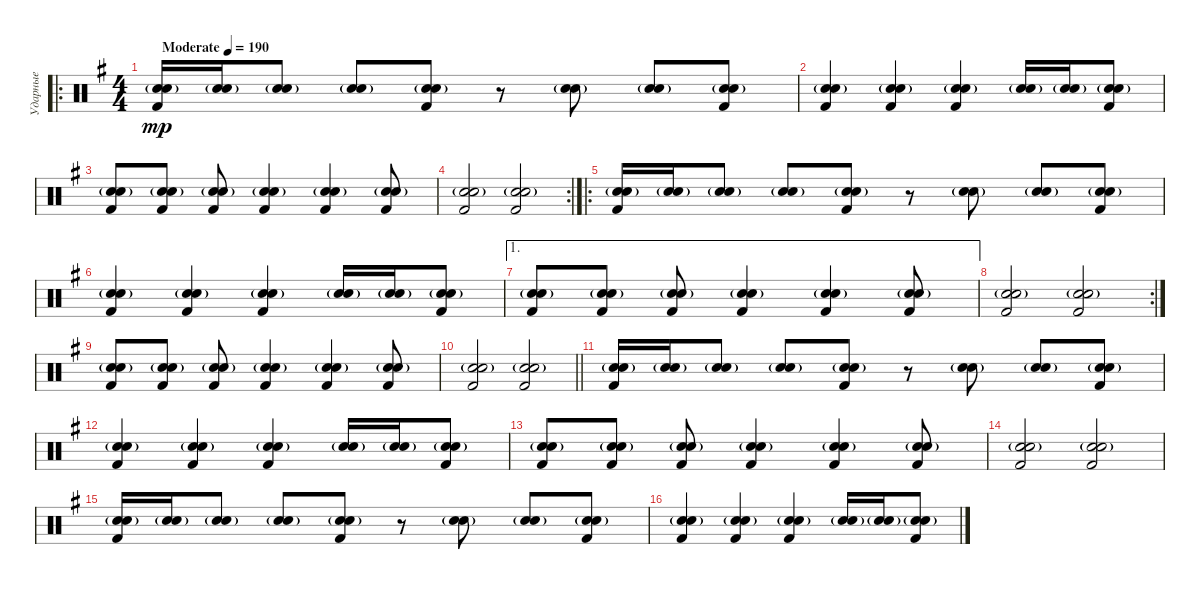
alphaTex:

\track ("Ударные" "Ударные") {instrument percussion}
\staff {score}
\articulation defaults
\ro
\ts (4 4)
\tempo (190 "Moderate")
\clef neutral
\ks g
("Kick (hit) 2" "Snare (hit) 2"{g} "Electric Snare (hit)").16{dy mp} ("Snare (hit) 2"{g} "Electric Snare (hit)"{g}).16 ("Snare (hit) 2"{g} "Electric Snare (hit)"{g}).8 ("Snare (hit) 2"{g} "Electric Snare (hit)").8 ("Kick (hit) 2" "Snare (hit) 2"{g} "Electric Snare (hit)").8 r.8 ("Snare (hit) 2"{g} "Electric Snare (hit)").8 ("Snare (hit) 2"{g} "Electric Snare (hit)"{g}).8 ("Kick (hit) 2" "Snare (hit) 2"{g} "Electric Snare (hit)").8 |
("Kick (hit) 2" "Snare (hit) 2"{g} "Electric Snare (hit)").4 ("Kick (hit) 2" "Snare (hit) 2"{g} "Electric Snare (hit)").4 ("Kick (hit) 2" "Snare (hit) 2"{g} "Electric Snare (hit)").4 ("Snare (hit) 2"{g} "Electric Snare (hit)"{g}).16 ("Snare (hit) 2"{g} "Electric Snare (hit)"{g}).16 ("Kick (hit) 2" "Snare (hit) 2"{g} "Electric Snare (hit)").8 |
("Kick (hit) 2" "Snare (hit) 2"{g} "Electric Snare (hit)").8 ("Kick (hit) 2" "Snare (hit) 2"{g} "Electric Snare (hit)").8 ("Kick (hit) 2" "Snare (hit) 2"{g} "Electric Snare (hit)").8 ("Kick (hit) 2" "Snare (hit) 2"{g} "Electric Snare (hit)").4 ("Kick (hit) 2" "Snare (hit) 2"{g} "Electric Snare (hit)").4 ("Kick (hit) 2" "Snare (hit) 2"{g} "Electric Snare (hit)").8 |
\rc 2
("Kick (hit) 2" "Snare (hit) 2"{g} "Electric Snare (hit)").2 ("Kick (hit) 2" "Snare (hit) 2"{g} "Electric Snare (hit)").2 |
\ro
("Kick (hit) 2" "Snare (hit) 2"{g} "Electric Snare (hit)").16 ("Snare (hit) 2"{g} "Electric Snare (hit)"{g}).16 ("Snare (hit) 2"{g} "Electric Snare (hit)"{g}).8 ("Snare (hit) 2"{g} "Electric Snare (hit)").8 ("Kick (hit) 2" "Snare (hit) 2"{g} "Electric Snare (hit)").8 r.8 ("Snare (hit) 2"{g} "Electric Snare (hit)").8 ("Snare (hit) 2"{g} "Electric Snare (hit)"{g}).8 ("Kick (hit) 2" "Snare (hit) 2"{g} "Electric Snare (hit)").8 |
("Kick (hit) 2" "Snare (hit) 2"{g} "Electric Snare (hit)").4 ("Kick (hit) 2" "Snare (hit) 2"{g} "Electric Snare (hit)").4 ("Kick (hit) 2" "Snare (hit) 2"{g} "Electric Snare (hit)").4 ("Snare (hit) 2"{g} "Electric Snare (hit)"{g}).16 ("Snare (hit) 2"{g} "Electric Snare (hit)"{g}).16 ("Kick (hit) 2" "Snare (hit) 2"{g} "Electric Snare (hit)").8 |
\ae 1
("Kick (hit) 2" "Snare (hit) 2"{g} "Electric Snare (hit)").8 ("Kick (hit) 2" "Snare (hit) 2"{g} "Electric Snare (hit)").8 ("Kick (hit) 2" "Snare (hit) 2"{g} "Electric Snare (hit)").8 ("Kick (hit) 2" "Snare (hit) 2"{g} "Electric Snare (hit)").4 ("Kick (hit) 2" "Snare (hit) 2"{g} "Electric Snare (hit)").4 ("Kick (hit) 2" "Snare (hit) 2"{g} "Electric Snare (hit)").8 |
\rc 2
("Kick (hit) 2" "Snare (hit) 2"{g} "Electric Snare (hit)").2 ("Kick (hit) 2" "Snare (hit) 2"{g} "Electric Snare (hit)").2 |
("Kick (hit) 2" "Snare (hit) 2"{g} "Electric Snare (hit)").8 ("Kick (hit) 2" "Snare (hit) 2"{g} "Electric Snare (hit)").8 ("Kick (hit) 2" "Snare (hit) 2"{g} "Electric Snare (hit)").8 ("Kick (hit) 2" "Snare (hit) 2"{g} "Electric Snare (hit)").4 ("Kick (hit) 2" "Snare (hit) 2"{g} "Electric Snare (hit)").4 ("Kick (hit) 2" "Snare (hit) 2"{g} "Electric Snare (hit)").8 |
\barLineRight lightlight
("Kick (hit) 2" "Snare (hit) 2"{g} "Electric Snare (hit)").2 ("Kick (hit) 2" "Snare (hit) 2"{g} "Electric Snare (hit)").2 |
("Kick (hit) 2" "Snare (hit) 2"{g} "Electric Snare (hit)").16 ("Snare (hit) 2"{g} "Electric Snare (hit)"{g}).16 ("Snare (hit) 2"{g} "Electric Snare (hit)"{g}).8 ("Snare (hit) 2"{g} "Electric Snare (hit)").8 ("Kick (hit) 2" "Snare (hit) 2"{g} "Electric Snare (hit)").8 r.8 ("Snare (hit) 2"{g} "Electric Snare (hit)").8 ("Snare (hit) 2"{g} "Electric Snare (hit)"{g}).8 ("Kick (hit) 2" "Snare (hit) 2"{g} "Electric Snare (hit)").8 |
("Kick (hit) 2" "Snare (hit) 2"{g} "Electric Snare (hit)").4 ("Kick (hit) 2" "Snare (hit) 2"{g} "Electric Snare (hit)").4 ("Kick (hit) 2" "Snare (hit) 2"{g} "Electric Snare (hit)").4 ("Snare (hit) 2"{g} "Electric Snare (hit)"{g}).16 ("Snare (hit) 2"{g} "Electric Snare (hit)"{g}).16 ("Kick (hit) 2" "Snare (hit) 2"{g} "Electric Snare (hit)").8 |
("Kick (hit) 2" "Snare (hit) 2"{g} "Electric Snare (hit)").8 ("Kick (hit) 2" "Snare (hit) 2"{g} "Electric Snare (hit)").8 ("Kick (hit) 2" "Snare (hit) 2"{g} "Electric Snare (hit)").8 ("Kick (hit) 2" "Snare (hit) 2"{g} "Electric Snare (hit)").4 ("Kick (hit) 2" "Snare (hit) 2"{g} "Electric Snare (hit)").4 ("Kick (hit) 2" "Snare (hit) 2"{g} "Electric Snare (hit)").8 |
("Kick (hit) 2" "Snare (hit) 2"{g} "Electric Snare (hit)").2 ("Kick (hit) 2" "Snare (hit) 2"{g} "Electric Snare (hit)").2 |
("Kick (hit) 2" "Snare (hit) 2"{g} "Electric Snare (hit)").16 ("Snare (hit) 2"{g} "Electric Snare (hit)"{g}).16 ("Snare (hit) 2"{g} "Electric Snare (hit)"{g}).8 ("Snare (hit) 2"{g} "Electric Snare (hit)").8 ("Kick (hit) 2" "Snare (hit) 2"{g} "Electric Snare (hit)").8 r.8 ("Snare (hit) 2"{g} "Electric Snare (hit)").8 ("Snare (hit) 2"{g} "Electric Snare (hit)"{g}).8 ("Kick (hit) 2" "Snare (hit) 2"{g} "Electric Snare (hit)").8 |
("Kick (hit) 2" "Snare (hit) 2"{g} "Electric Snare (hit)").4 ("Kick (hit) 2" "Snare (hit) 2"{g} "Electric Snare (hit)").4 ("Kick (hit) 2" "Snare (hit) 2"{g} "Electric Snare (hit)").4 ("Snare (hit) 2"{g} "Electric Snare (hit)"{g}).16 ("Snare (hit) 2"{g} "Electric Snare (hit)"{g}).16 ("Kick (hit) 2" "Snare (hit) 2"{g} "Electric Snare (hit)").8
